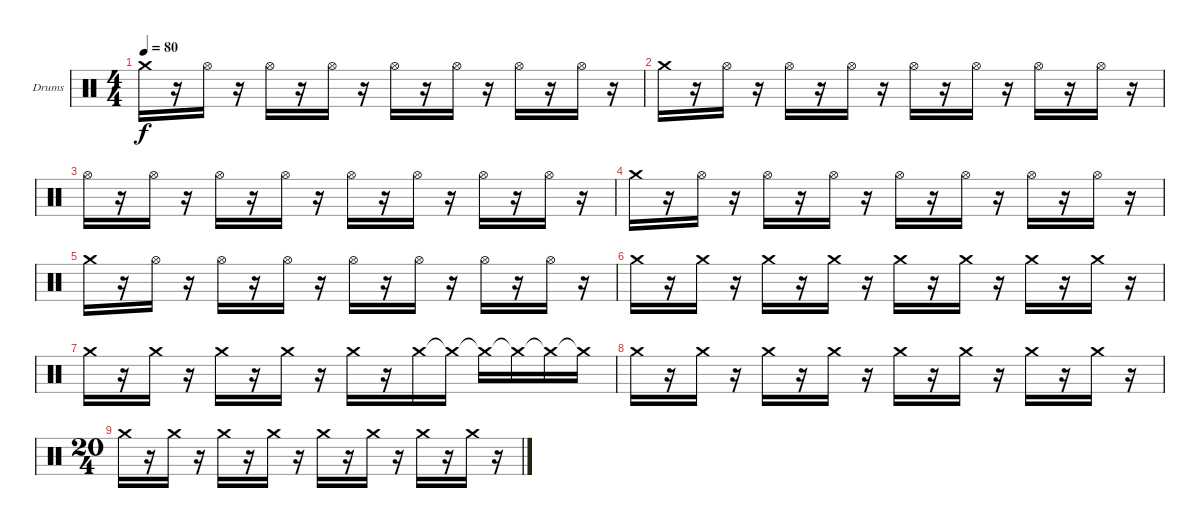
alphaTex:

\bracketExtendMode groupsimilarinstruments
\firstSystemTrackNameOrientation horizontal
\otherSystemsTrackNameOrientation horizontal
\track ("Drumkit" "Drums") {instrument percussion}
\staff {score}
\articulation defaults
\ts (4 4)
\tempo 80
\clef neutral
\scale
0.333333
\ks c "Crash medium (hit)".16{dy f}
r.16 "Hi-Hat (open)".16 r.16 "Hi-Hat (open)".16 r.16 "Hi-Hat (open)".16 r.16 "Hi-Hat (open)".16 r.16 "Hi-Hat (open)".16 r.16 "Hi-Hat (open)".16 r.16 "Hi-Hat (open)".16 r.16 |
\scale
0.333333 "Crash medium (hit)".16 r.16 "Hi-Hat (open)".16 r.16 "Hi-Hat (open)".16 r.16 "Hi-Hat (open)".16 r.16 "Hi-Hat (open)".16 r.16 "Hi-Hat (open)".16 r.16 "Hi-Hat (open)".16 r.16 "Hi-Hat (open)".16 r.16 |
\scale
0.333333 "Hi-Hat (open)".16 r.16 "Hi-Hat (open)".16 r.16 "Hi-Hat (open)".16 r.16 "Hi-Hat (open)".16 r.16 "Hi-Hat (open)".16 r.16 "Hi-Hat (open)".16 r.16 "Hi-Hat (open)".16 r.16 "Hi-Hat (open)".16 r.16 |
\scale
0.333333 "Crash medium (hit)".16 r.16 "Hi-Hat (open)".16 r.16 "Hi-Hat (open)".16 r.16 "Hi-Hat (open)".16 r.16 "Hi-Hat (open)".16 r.16 "Hi-Hat (open)".16 r.16 "Hi-Hat (open)".16 r.16 "Hi-Hat (open)".16 r.16 |
\scale
0.333333 "Crash medium (hit)".16 r.16 "Hi-Hat (open)".16 r.16 "Hi-Hat (open)".16 r.16 "Hi-Hat (open)".16 r.16 "Hi-Hat (open)".16 r.16 "Hi-Hat (open)".16 r.16 "Hi-Hat (open)".16 r.16 "Hi-Hat (open)".16 r.16 |
\scale
0.333333 "Crash medium (hit)".16 r.16 "Crash medium (hit)".16 r.16 "Crash medium (hit)".16 r.16 "Crash medium (hit)".16 r.16 "Crash medium (hit)".16 r.16 "Crash medium (hit)".16 r.16 "Crash medium (hit)".16 r.16 "Crash medium (hit)".16 r.16 |
\scale
0.333333 "Crash medium (hit)".16 r.16 "Crash medium (hit)".16 r.16 "Crash medium (hit)".16 r.16 "Crash medium (hit)".16 r.16 "Crash medium (hit)".16 r.16 "Crash medium (hit)".16 "Crash medium (hit)"{t}.16 "Crash medium (hit)"{t}.16 "Crash medium (hit)"{t}.16 "Crash medium (hit)"{t}.16 "Crash medium (hit)"{t}.16 |
\scale
0.333333 "Crash medium (hit)".16 r.16 "Crash medium (hit)".16 r.16 "Crash medium (hit)".16 r.16 "Crash medium (hit)".16 r.16 "Crash medium (hit)".16 r.16 "Crash medium (hit)".16 r.16 "Crash medium (hit)".16 r.16 "Crash medium (hit)".16 r.16 |
\ts (20 4)
"Crash medium (hit)".16 r.16 "Crash medium (hit)".16 r.16 "Crash medium (hit)".16 r.16 "Crash medium (hit)".16 r.16 "Crash medium (hit)".16 r.16 "Crash medium (hit)".16 r.16 "Crash medium (hit)".16 r.16 "Crash medium (hit)".16 r.16
